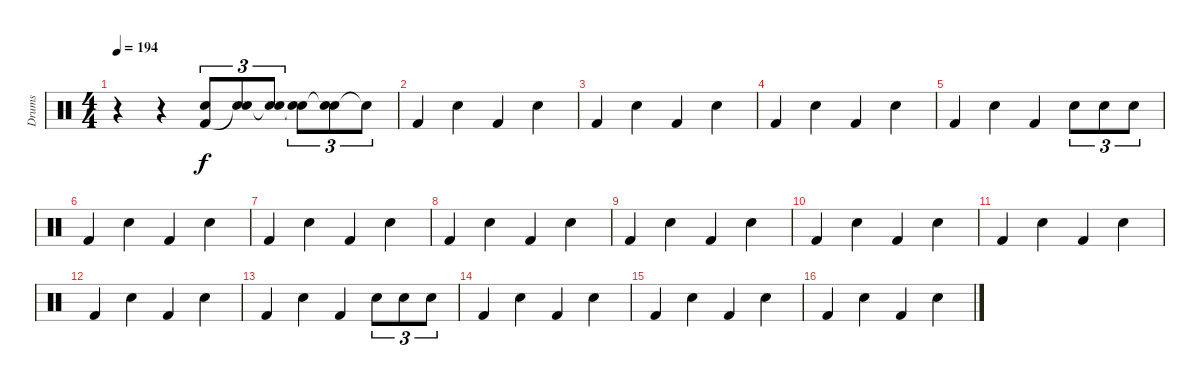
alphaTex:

\track ("Drums" "Drums") {instrument percussion}
\staff {score}
\articulation defaults
\ts (4 4)
\tempo 194
\clef neutral
\ks c
r.4{dy f} r.4 ("Snare (hit) 2" "Kick (hit) 2").8{tu (3 2)} ("Snare (hit) 2" "Snare (hit)"{t}).8{tu (3 2)} ("Snare (hit) 2" "Snare (hit)"{t}).8{tu (3 2)} ("Snare (hit) 2" "Snare (hit)"{t}).8{tu (3 2)} ("Snare (hit) 2" "Snare (hit)"{t}).8{tu (3 2)} "Snare (hit)"{t}.8{tu (3 2)} |
"Kick (hit) 2".4 "Snare (hit) 2".4 "Kick (hit) 2".4 "Snare (hit) 2".4 |
"Kick (hit) 2".4 "Snare (hit) 2".4 "Kick (hit) 2".4 "Snare (hit) 2".4 |
"Kick (hit) 2".4 "Snare (hit) 2".4 "Kick (hit) 2".4 "Snare (hit) 2".4 |
"Kick (hit) 2".4 "Snare (hit) 2".4 "Kick (hit) 2".4 "Snare (hit) 2".8{tu (3 2)} "Snare (hit) 2".8{tu (3 2)} "Snare (hit) 2".8{tu (3 2)} |
"Kick (hit) 2".4 "Snare (hit) 2".4 "Kick (hit) 2".4 "Snare (hit) 2".4 |
"Kick (hit) 2".4 "Snare (hit) 2".4 "Kick (hit) 2".4 "Snare (hit) 2".4 |
"Kick (hit) 2".4 "Snare (hit) 2".4 "Kick (hit) 2".4 "Snare (hit) 2".4 |
"Kick (hit) 2".4 "Snare (hit) 2".4 "Kick (hit) 2".4 "Snare (hit) 2".4 |
"Kick (hit) 2".4 "Snare (hit) 2".4 "Kick (hit) 2".4 "Snare (hit) 2".4 |
"Kick (hit) 2".4 "Snare (hit) 2".4 "Kick (hit) 2".4 "Snare (hit) 2".4 |
"Kick (hit) 2".4 "Snare (hit) 2".4 "Kick (hit) 2".4 "Snare (hit) 2".4 |
"Kick (hit) 2".4 "Snare (hit) 2".4 "Kick (hit) 2".4 "Snare (hit) 2".8{tu (3 2)} "Snare (hit) 2".8{tu (3 2)} "Snare (hit) 2".8{tu (3 2)} |
"Kick (hit) 2".4 "Snare (hit) 2".4 "Kick (hit) 2".4 "Snare (hit) 2".4 |
"Kick (hit) 2".4 "Snare (hit) 2".4 "Kick (hit) 2".4 "Snare (hit) 2".4 |
"Kick (hit) 2".4 "Snare (hit) 2".4 "Kick (hit) 2".4 "Snare (hit) 2".4
